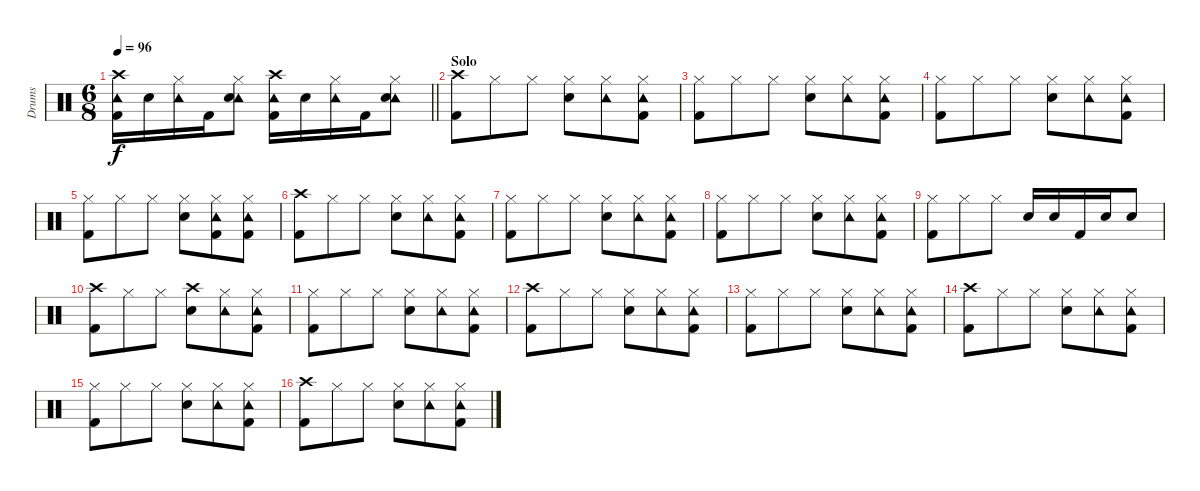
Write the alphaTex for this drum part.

\track ("Drums" "Drums") {instrument percussion}
\staff {score}
\articulation defaults
\ts (6 8)
\tempo 96
\clef neutral
\barLineRight lightlight
\ks c
("Crash high (hit)" "Tambourine (hit)" "Kick (hit) 2").16{dy f} "Snare (hit) 2".16 ("Hi-Hat (closed)" "Tambourine (hit)").16 "Kick (hit) 2".16 ("Hi-Hat (closed)" "Tambourine (hit)" "Snare (hit) 2").8 ("Crash high (hit)" "Tambourine (hit)" "Kick (hit) 2").16 "Snare (hit) 2".16 ("Hi-Hat (closed)" "Tambourine (hit)").16 "Kick (hit) 2".16 ("Hi-Hat (closed)" "Tambourine (hit)" "Snare (hit) 2").8 |
\section ("" "Solo")
("Crash high (hit)" "Kick (hit) 2").8 "Hi-Hat (closed)".8 "Hi-Hat (closed)".8 ("Hi-Hat (closed)" "Snare (hit) 2").8 ("Hi-Hat (closed)" "Tambourine (hit)").8 ("Hi-Hat (closed)" "Tambourine (hit)" "Kick (hit) 2").8 |
("Hi-Hat (closed)" "Kick (hit) 2").8 "Hi-Hat (closed)".8 "Hi-Hat (closed)".8 ("Hi-Hat (closed)" "Snare (hit) 2").8 ("Hi-Hat (closed)" "Tambourine (hit)").8 ("Hi-Hat (closed)" "Tambourine (hit)" "Kick (hit) 2").8 |
("Hi-Hat (closed)" "Kick (hit) 2").8 "Hi-Hat (closed)".8 "Hi-Hat (closed)".8 ("Hi-Hat (closed)" "Snare (hit) 2").8 ("Hi-Hat (closed)" "Tambourine (hit)").8 ("Hi-Hat (closed)" "Tambourine (hit)" "Kick (hit) 2").8 |
("Hi-Hat (closed)" "Kick (hit) 2").8 "Hi-Hat (closed)".8 "Hi-Hat (closed)".8 ("Hi-Hat (closed)" "Snare (hit) 2").8 ("Hi-Hat (closed)" "Tambourine (hit)" "Kick (hit) 2").8 ("Hi-Hat (closed)" "Tambourine (hit)" "Kick (hit) 2").8 |
("Crash high (hit)" "Kick (hit) 2").8 "Hi-Hat (closed)".8 "Hi-Hat (closed)".8 ("Hi-Hat (closed)" "Snare (hit) 2").8 ("Hi-Hat (closed)" "Tambourine (hit)").8 ("Hi-Hat (closed)" "Tambourine (hit)" "Kick (hit) 2").8 |
("Hi-Hat (closed)" "Kick (hit) 2").8 "Hi-Hat (closed)".8 "Hi-Hat (closed)".8 ("Hi-Hat (closed)" "Snare (hit) 2").8 ("Hi-Hat (closed)" "Tambourine (hit)").8 ("Hi-Hat (closed)" "Tambourine (hit)" "Kick (hit) 2").8 |
("Hi-Hat (closed)" "Kick (hit) 2").8 "Hi-Hat (closed)".8 "Hi-Hat (closed)".8 ("Hi-Hat (closed)" "Snare (hit) 2").8 ("Hi-Hat (closed)" "Tambourine (hit)").8 ("Hi-Hat (closed)" "Tambourine (hit)" "Kick (hit) 2").8 |
("Hi-Hat (closed)" "Kick (hit) 2").8 "Hi-Hat (closed)".8 "Hi-Hat (closed)".8 "Snare (hit) 2".16 "Snare (hit) 2".16 "Kick (hit) 2".16 "Snare (hit) 2".16 "Snare (hit) 2".8 |
("Crash high (hit)" "Kick (hit) 2").8 "Hi-Hat (closed)".8 "Hi-Hat (closed)".8 ("Crash high (hit)" "Snare (hit) 2").8 ("Hi-Hat (closed)" "Tambourine (hit)").8 ("Hi-Hat (closed)" "Tambourine (hit)" "Kick (hit) 2").8 |
("Hi-Hat (closed)" "Kick (hit) 2").8 "Hi-Hat (closed)".8 "Hi-Hat (closed)".8 ("Hi-Hat (closed)" "Snare (hit) 2").8 ("Hi-Hat (closed)" "Tambourine (hit)").8 ("Hi-Hat (closed)" "Tambourine (hit)" "Kick (hit) 2").8 |
("Crash high (hit)" "Kick (hit) 2").8 "Hi-Hat (closed)".8 "Hi-Hat (closed)".8 ("Hi-Hat (closed)" "Snare (hit) 2").8 ("Hi-Hat (closed)" "Tambourine (hit)").8 ("Hi-Hat (closed)" "Tambourine (hit)" "Kick (hit) 2").8 |
("Hi-Hat (closed)" "Kick (hit) 2").8 "Hi-Hat (closed)".8 "Hi-Hat (closed)".8 ("Hi-Hat (closed)" "Snare (hit) 2").8 ("Hi-Hat (closed)" "Tambourine (hit)").8 ("Hi-Hat (closed)" "Tambourine (hit)" "Kick (hit) 2").8 |
("Crash high (hit)" "Kick (hit) 2").8 "Hi-Hat (closed)".8 "Hi-Hat (closed)".8 ("Hi-Hat (closed)" "Snare (hit) 2").8 ("Hi-Hat (closed)" "Tambourine (hit)").8 ("Hi-Hat (closed)" "Tambourine (hit)" "Kick (hit) 2").8 |
("Hi-Hat (closed)" "Kick (hit) 2").8 "Hi-Hat (closed)".8 "Hi-Hat (closed)".8 ("Hi-Hat (closed)" "Snare (hit) 2").8 ("Hi-Hat (closed)" "Tambourine (hit)").8 ("Hi-Hat (closed)" "Tambourine (hit)" "Kick (hit) 2").8 |
("Crash high (hit)" "Kick (hit) 2").8 "Hi-Hat (closed)".8 "Hi-Hat (closed)".8 ("Hi-Hat (closed)" "Snare (hit) 2").8 ("Hi-Hat (closed)" "Tambourine (hit)").8 ("Hi-Hat (closed)" "Tambourine (hit)" "Kick (hit) 2").8
